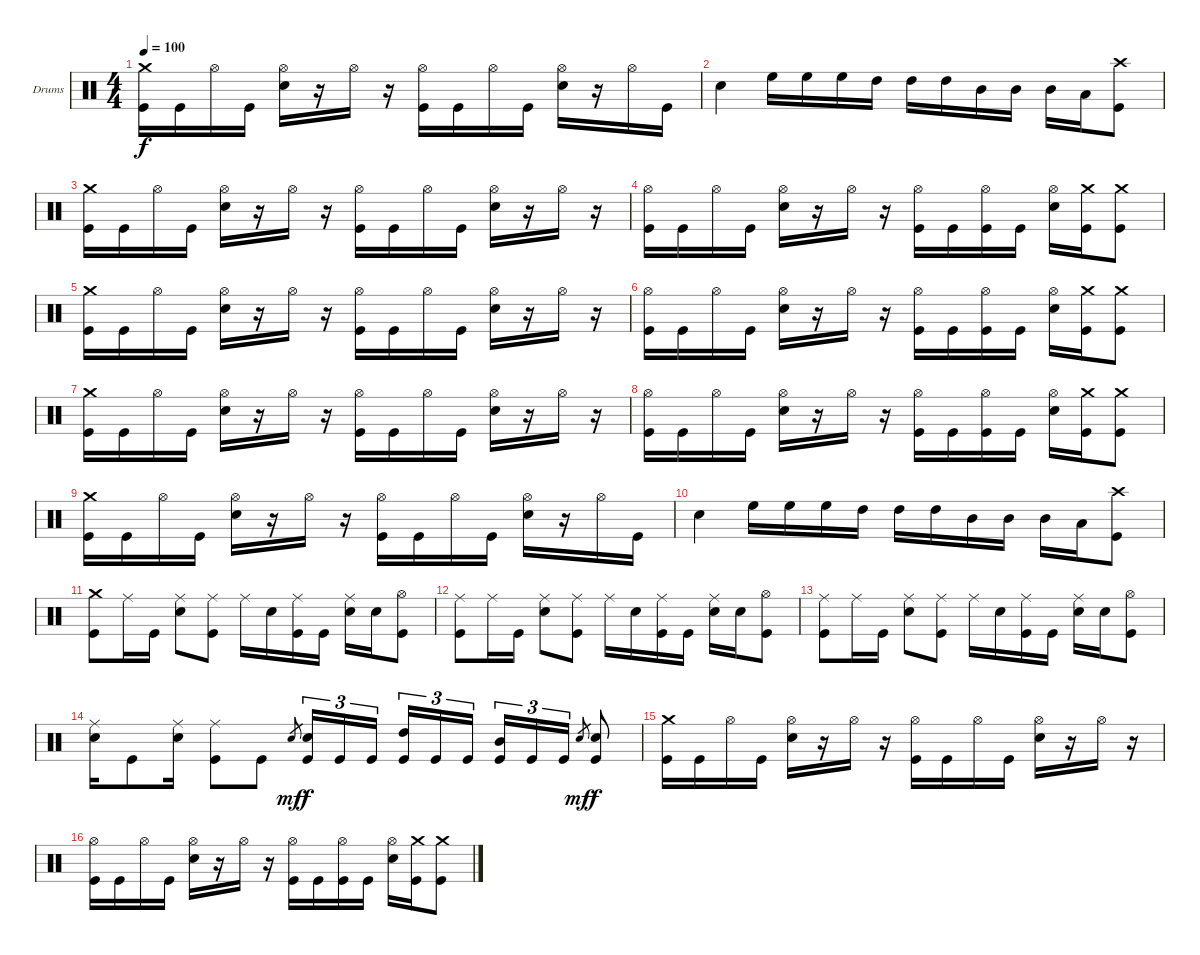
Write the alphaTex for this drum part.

\bracketExtendMode groupsimilarinstruments
\firstSystemTrackNameOrientation horizontal
\otherSystemsTrackNameOrientation horizontal
\track ("Nick Menza" "Drums") {instrument percussion}
\staff {score}
\articulation defaults
\ts (4 4)
\tempo 100
\clef neutral
\ks c
("Crash medium (hit)" "Kick (hit)").16{dy f} "Kick (hit)".16 "Hi-Hat (open)".16 "Kick (hit)".16 ("Hi-Hat (open)" "Snare (hit) 2").16 r.16 "Hi-Hat (open)".16 r.16 ("Hi-Hat (open)" "Kick (hit)").16 "Kick (hit)".16 "Hi-Hat (open)".16 "Kick (hit)".16 ("Hi-Hat (open)" "Snare (hit) 2").16 r.16 "Hi-Hat (open)".16 "Kick (hit)".16 |
"Snare (hit) 2".4 "High Floor Tom (hit)".16 "High Floor Tom (hit)".16 "High Floor Tom (hit)".16 "High Tom (hit)".16 "High Tom (hit)".16 "High Tom (hit)".16 "Mid Tom (hit)".16 "Mid Tom (hit)".16 "Mid Tom (hit)".16 "Low Tom (hit)".16 ("Crash high (hit)" "Kick (hit)").8 |
("Crash medium (hit)" "Kick (hit)").16 "Kick (hit)".16 "Hi-Hat (open)".16 "Kick (hit)".16 ("Hi-Hat (open)" "Snare (hit) 2").16 r.16 "Hi-Hat (open)".16 r.16 ("Hi-Hat (open)" "Kick (hit)").16 "Kick (hit)".16 "Hi-Hat (open)".16 "Kick (hit)".16 ("Hi-Hat (open)" "Snare (hit) 2").16 r.16 "Hi-Hat (open)".16 r.16 |
("Hi-Hat (open)" "Kick (hit)").16 "Kick (hit)".16 "Hi-Hat (open)".16 "Kick (hit)".16 ("Hi-Hat (open)" "Snare (hit) 2").16 r.16 "Hi-Hat (open)".16 r.16 ("Hi-Hat (open)" "Kick (hit)").16 "Kick (hit)".16 ("Hi-Hat (open)" "Kick (hit)").16 "Kick (hit)".16 ("Hi-Hat (open)" "Snare (hit) 2").16 ("Crash medium (hit)" "Kick (hit)").16 ("Crash medium (hit)" "Kick (hit)").8 |
("Crash medium (hit)" "Kick (hit)").16 "Kick (hit)".16 "Hi-Hat (open)".16 "Kick (hit)".16 ("Hi-Hat (open)" "Snare (hit) 2").16 r.16 "Hi-Hat (open)".16 r.16 ("Hi-Hat (open)" "Kick (hit)").16 "Kick (hit)".16 "Hi-Hat (open)".16 "Kick (hit)".16 ("Hi-Hat (open)" "Snare (hit) 2").16 r.16 "Hi-Hat (open)".16 r.16 |
("Hi-Hat (open)" "Kick (hit)").16 "Kick (hit)".16 "Hi-Hat (open)".16 "Kick (hit)".16 ("Hi-Hat (open)" "Snare (hit) 2").16 r.16 "Hi-Hat (open)".16 r.16 ("Hi-Hat (open)" "Kick (hit)").16 "Kick (hit)".16 ("Hi-Hat (open)" "Kick (hit)").16 "Kick (hit)".16 ("Hi-Hat (open)" "Snare (hit) 2").16 ("Crash medium (hit)" "Kick (hit)").16 ("Crash medium (hit)" "Kick (hit)").8 |
("Crash medium (hit)" "Kick (hit)").16 "Kick (hit)".16 "Hi-Hat (open)".16 "Kick (hit)".16 ("Hi-Hat (open)" "Snare (hit) 2").16 r.16 "Hi-Hat (open)".16 r.16 ("Hi-Hat (open)" "Kick (hit)").16 "Kick (hit)".16 "Hi-Hat (open)".16 "Kick (hit)".16 ("Hi-Hat (open)" "Snare (hit) 2").16 r.16 "Hi-Hat (open)".16 r.16 |
("Hi-Hat (open)" "Kick (hit)").16 "Kick (hit)".16 "Hi-Hat (open)".16 "Kick (hit)".16 ("Hi-Hat (open)" "Snare (hit) 2").16 r.16 "Hi-Hat (open)".16 r.16 ("Hi-Hat (open)" "Kick (hit)").16 "Kick (hit)".16 ("Hi-Hat (open)" "Kick (hit)").16 "Kick (hit)".16 ("Hi-Hat (open)" "Snare (hit) 2").16 ("Crash medium (hit)" "Kick (hit)").16 ("Crash medium (hit)" "Kick (hit)").8 |
("Crash medium (hit)" "Kick (hit)").16 "Kick (hit)".16 "Hi-Hat (open)".16 "Kick (hit)".16 ("Hi-Hat (open)" "Snare (hit) 2").16 r.16 "Hi-Hat (open)".16 r.16 ("Hi-Hat (open)" "Kick (hit)").16 "Kick (hit)".16 "Hi-Hat (open)".16 "Kick (hit)".16 ("Hi-Hat (open)" "Snare (hit) 2").16 r.16 "Hi-Hat (open)".16 "Kick (hit)".16 |
"Snare (hit) 2".4 "High Floor Tom (hit)".16 "High Floor Tom (hit)".16 "High Floor Tom (hit)".16 "High Tom (hit)".16 "High Tom (hit)".16 "High Tom (hit)".16 "Mid Tom (hit)".16 "Mid Tom (hit)".16 "Mid Tom (hit)".16 "Low Tom (hit)".16 ("Crash high (hit)" "Kick (hit)").8 |
("Crash medium (hit)" "Kick (hit)").8 "Ride (middle)".16 "Kick (hit)".16 ("Ride (middle)" "Snare (hit) 2").8 ("Ride (middle)" "Kick (hit)").8 "Ride (middle)".16 "Snare (hit) 2".16 ("Ride (middle)" "Kick (hit)").16 "Kick (hit)".16 ("Ride (middle)" "Snare (hit) 2").16 "Snare (hit) 2".16 ("Hi-Hat (open)" "Kick (hit)").8 |
("Ride (middle)" "Kick (hit)").8 "Ride (middle)".16 "Kick (hit)".16 ("Ride (middle)" "Snare (hit) 2").8 ("Ride (middle)" "Kick (hit)").8 "Ride (middle)".16 "Snare (hit) 2".16 ("Ride (middle)" "Kick (hit)").16 "Kick (hit)".16 ("Ride (middle)" "Snare (hit) 2").16 "Snare (hit) 2".16 ("Hi-Hat (open)" "Kick (hit)").8 |
("Ride (middle)" "Kick (hit)").8 "Ride (middle)".16 "Kick (hit)".16 ("Ride (middle)" "Snare (hit) 2").8 ("Ride (middle)" "Kick (hit)").8 "Ride (middle)".16 "Snare (hit) 2".16 ("Ride (middle)" "Kick (hit)").16 "Kick (hit)".16 ("Ride (middle)" "Snare (hit) 2").16 "Snare (hit) 2".16 ("Hi-Hat (open)" "Kick (hit)").8 |
("Ride (middle)" "Snare (hit) 2").16 "Kick (hit)".8 ("Ride (middle)" "Snare (hit) 2").16 ("Ride (middle)" "Kick (hit)").8 "Kick (hit)".8 "Snare (hit) 2".8{gr dy mf} ("Snare (hit) 2" "Kick (hit)").16{tu (3 2) dy f} "Kick (hit)".16{tu (3 2)} "Kick (hit)".16{tu (3 2)} ("High Tom (hit)" "Kick (hit)").16{tu (3 2)} "Kick (hit)".16{tu (3 2)} "Kick (hit)".16{tu (3 2)} ("Mid Tom (hit)" "Kick (hit)").16{tu (3 2)} "Kick (hit)".16{tu (3 2)} "Kick (hit)".16{tu (3 2)} "Snare (hit) 2".8{gr dy mf} ("Snare (hit) 2" "Kick (hit)").8{dy f} |
("Crash medium (hit)" "Kick (hit)").16 "Kick (hit)".16 "Hi-Hat (open)".16 "Kick (hit)".16 ("Hi-Hat (open)" "Snare (hit) 2").16 r.16 "Hi-Hat (open)".16 r.16 ("Hi-Hat (open)" "Kick (hit)").16 "Kick (hit)".16 "Hi-Hat (open)".16 "Kick (hit)".16 ("Hi-Hat (open)" "Snare (hit) 2").16 r.16 "Hi-Hat (open)".16 r.16 |
("Hi-Hat (open)" "Kick (hit)").16 "Kick (hit)".16 "Hi-Hat (open)".16 "Kick (hit)".16 ("Hi-Hat (open)" "Snare (hit) 2").16 r.16 "Hi-Hat (open)".16 r.16 ("Hi-Hat (open)" "Kick (hit)").16 "Kick (hit)".16 ("Hi-Hat (open)" "Kick (hit)").16 "Kick (hit)".16 ("Hi-Hat (open)" "Snare (hit) 2").16 ("Crash medium (hit)" "Kick (hit)").16 ("Crash medium (hit)" "Kick (hit)").8
